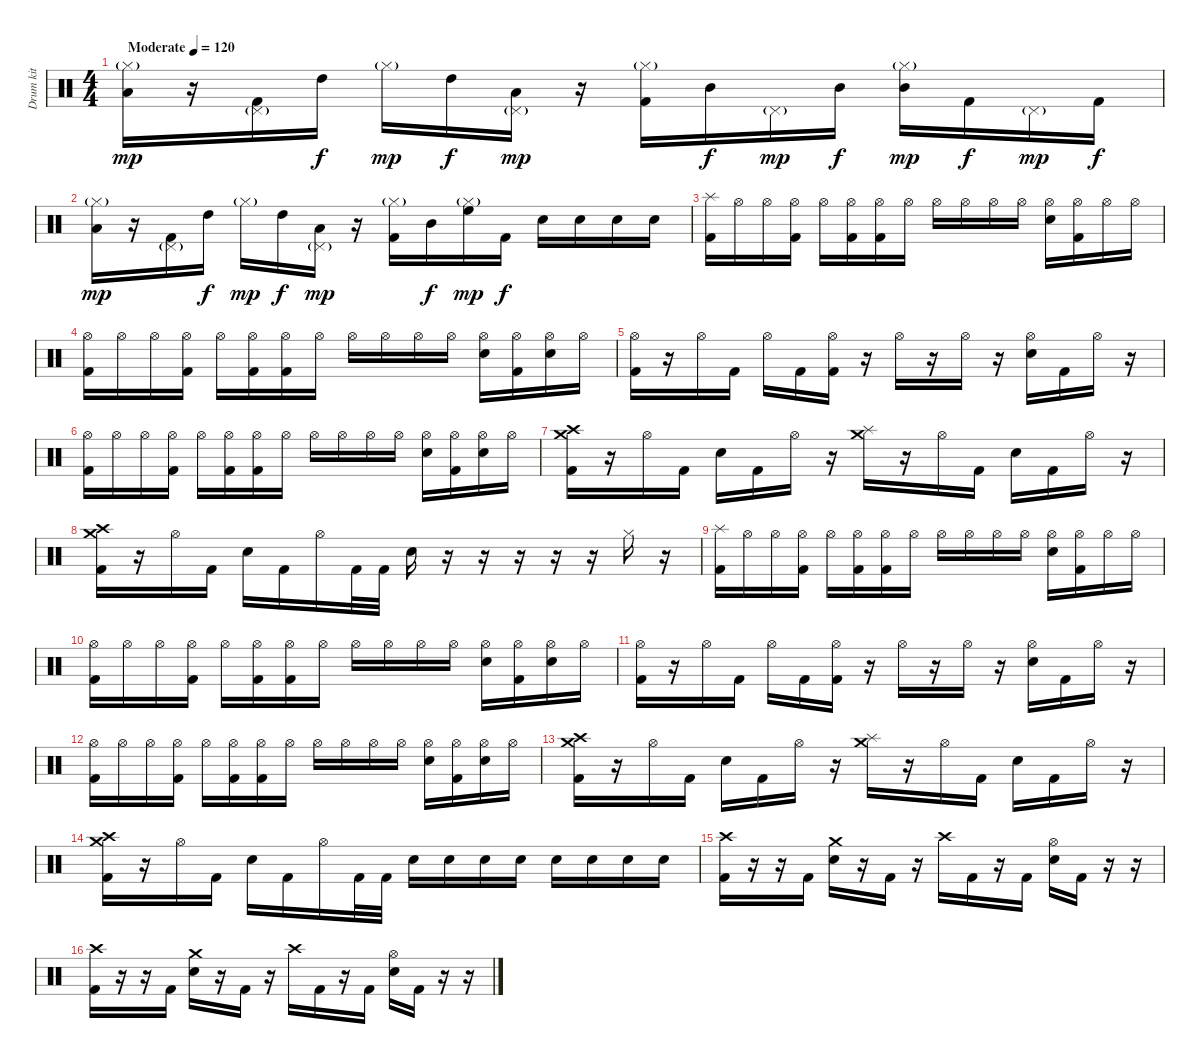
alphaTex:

\track ("Drum kit" "Drum kit") {instrument percussion}
\staff {score}
\articulation defaults
\ts (4 4)
\tempo (120 "Moderate")
\clef neutral
\ks c
("Hi-Hat (closed)"{g} "Low Tom (hit)").16{dy mp} r.16 ("Pedal Hi-Hat (hit)"{g} "Kick (hit) 2").16 "High Tom (hit)".16{dy f} "Hi-Hat (closed)"{g}.16{dy mp} "High Tom (hit)".16{dy f} ("Pedal Hi-Hat (hit)"{g} "Low Tom (hit)").16{dy mp} r.16 ("Hi-Hat (closed)"{g} "Kick (hit) 2").16 "Mid Tom (hit)".16{dy f} "Pedal Hi-Hat (hit)"{g}.16{dy mp} "Mid Tom (hit)".16{dy f} ("Hi-Hat (closed)"{g} "Mid Tom (hit)").16{dy mp} "Kick (hit) 2".16{dy f} "Pedal Hi-Hat (hit)"{g}.16{dy mp} "Kick (hit) 2".16{dy f} |
("Hi-Hat (closed)"{g} "Low Tom (hit)").16{dy mp} r.16 ("Pedal Hi-Hat (hit)"{g} "Kick (hit) 2").16 "High Tom (hit)".16{dy f} "Hi-Hat (closed)"{g}.16{dy mp} "High Tom (hit)".16{dy f} ("Pedal Hi-Hat (hit)"{g} "Low Tom (hit)").16{dy mp} r.16 ("Hi-Hat (closed)"{g} "Kick (hit) 2").16 "Mid Tom (hit)".16{dy f} ("Hi-Hat (closed)"{g} "High Floor Tom (hit)").16{dy mp} "Kick (hit) 2".16{dy f} "Snare (hit) 2".16 "Snare (hit) 2".16 "Snare (hit) 2".16 "Snare (hit) 2".16 |
("Splash (hit)" "Kick (hit) 2").16 "Hi-Hat (open)".16 "Hi-Hat (open)".16 ("Hi-Hat (open)" "Kick (hit) 2").16 "Hi-Hat (open)".16 ("Hi-Hat (open)" "Kick (hit) 2").16 ("Hi-Hat (open)" "Kick (hit) 2").16 "Hi-Hat (open)".16 "Hi-Hat (open)".16 "Hi-Hat (open)".16 "Hi-Hat (open)".16 "Hi-Hat (open)".16 ("Hi-Hat (open)" "Snare (hit) 2").16 ("Hi-Hat (open)" "Kick (hit) 2").16 "Hi-Hat (open)".16 "Hi-Hat (open)".16 |
("Hi-Hat (open)" "Kick (hit) 2").16 "Hi-Hat (open)".16 "Hi-Hat (open)".16 ("Hi-Hat (open)" "Kick (hit) 2").16 "Hi-Hat (open)".16 ("Hi-Hat (open)" "Kick (hit) 2").16 ("Hi-Hat (open)" "Kick (hit) 2").16 "Hi-Hat (open)".16 "Hi-Hat (open)".16 "Hi-Hat (open)".16 "Hi-Hat (open)".16 "Hi-Hat (open)".16 ("Hi-Hat (open)" "Snare (hit) 2").16 ("Hi-Hat (open)" "Kick (hit) 2").16 ("Hi-Hat (open)" "Snare (hit) 2").16 "Hi-Hat (open)".16 |
("Hi-Hat (open)" "Kick (hit) 2").16 r.16 "Hi-Hat (open)".16 "Kick (hit) 2".16 "Hi-Hat (open)".16 "Kick (hit) 2".16 ("Hi-Hat (open)" "Kick (hit) 2").16 r.16 "Hi-Hat (open)".16 r.16 "Hi-Hat (open)".16 r.16 ("Hi-Hat (open)" "Snare (hit) 2").16 "Kick (hit) 2".16 "Hi-Hat (open)".16 r.16 |
("Hi-Hat (open)" "Kick (hit) 2").16 "Hi-Hat (open)".16 "Hi-Hat (open)".16 ("Hi-Hat (open)" "Kick (hit) 2").16 "Hi-Hat (open)".16 ("Hi-Hat (open)" "Kick (hit) 2").16 ("Hi-Hat (open)" "Kick (hit) 2").16 "Hi-Hat (open)".16 "Hi-Hat (open)".16 "Hi-Hat (open)".16 "Hi-Hat (open)".16 "Hi-Hat (open)".16 ("Hi-Hat (open)" "Snare (hit) 2").16 ("Hi-Hat (open)" "Kick (hit) 2").16 ("Hi-Hat (open)" "Snare (hit) 2").16 "Hi-Hat (open)".16 |
("Crash high (hit)" "Crash medium (hit)" "Kick (hit) 2").16 r.16 "Hi-Hat (open)".16 "Kick (hit) 2".16 "Snare (hit) 2".16 "Kick (hit) 2".16 "Hi-Hat (open)".16 r.16 ("Splash (hit)" "Crash medium (hit)").16 r.16 "Hi-Hat (open)".16 "Kick (hit) 2".16 "Snare (hit) 2".16 "Kick (hit) 2".16 "Hi-Hat (open)".16 r.16 |
("Crash high (hit)" "Crash medium (hit)" "Kick (hit) 2").16 r.16 "Hi-Hat (open)".16 "Kick (hit) 2".16 "Snare (hit) 2".16 "Kick (hit) 2".16 "Hi-Hat (open)".16 "Kick (hit) 2".32 "Kick (hit) 2".32 "Snare (hit) 2".16 r.16 r.16 r.16 r.16 r.16 "Hi-Hat (closed)".16 r.16 |
("Splash (hit)" "Kick (hit) 2").16 "Hi-Hat (open)".16 "Hi-Hat (open)".16 ("Hi-Hat (open)" "Kick (hit) 2").16 "Hi-Hat (open)".16 ("Hi-Hat (open)" "Kick (hit) 2").16 ("Hi-Hat (open)" "Kick (hit) 2").16 "Hi-Hat (open)".16 "Hi-Hat (open)".16 "Hi-Hat (open)".16 "Hi-Hat (open)".16 "Hi-Hat (open)".16 ("Hi-Hat (open)" "Snare (hit) 2").16 ("Hi-Hat (open)" "Kick (hit) 2").16 "Hi-Hat (open)".16 "Hi-Hat (open)".16 |
("Hi-Hat (open)" "Kick (hit) 2").16 "Hi-Hat (open)".16 "Hi-Hat (open)".16 ("Hi-Hat (open)" "Kick (hit) 2").16 "Hi-Hat (open)".16 ("Hi-Hat (open)" "Kick (hit) 2").16 ("Hi-Hat (open)" "Kick (hit) 2").16 "Hi-Hat (open)".16 "Hi-Hat (open)".16 "Hi-Hat (open)".16 "Hi-Hat (open)".16 "Hi-Hat (open)".16 ("Hi-Hat (open)" "Snare (hit) 2").16 ("Hi-Hat (open)" "Kick (hit) 2").16 ("Hi-Hat (open)" "Snare (hit) 2").16 "Hi-Hat (open)".16 |
("Hi-Hat (open)" "Kick (hit) 2").16 r.16 "Hi-Hat (open)".16 "Kick (hit) 2".16 "Hi-Hat (open)".16 "Kick (hit) 2".16 ("Hi-Hat (open)" "Kick (hit) 2").16 r.16 "Hi-Hat (open)".16 r.16 "Hi-Hat (open)".16 r.16 ("Hi-Hat (open)" "Snare (hit) 2").16 "Kick (hit) 2".16 "Hi-Hat (open)".16 r.16 |
("Hi-Hat (open)" "Kick (hit) 2").16 "Hi-Hat (open)".16 "Hi-Hat (open)".16 ("Hi-Hat (open)" "Kick (hit) 2").16 "Hi-Hat (open)".16 ("Hi-Hat (open)" "Kick (hit) 2").16 ("Hi-Hat (open)" "Kick (hit) 2").16 "Hi-Hat (open)".16 "Hi-Hat (open)".16 "Hi-Hat (open)".16 "Hi-Hat (open)".16 "Hi-Hat (open)".16 ("Hi-Hat (open)" "Snare (hit) 2").16 ("Hi-Hat (open)" "Kick (hit) 2").16 ("Hi-Hat (open)" "Snare (hit) 2").16 "Hi-Hat (open)".16 |
("Crash high (hit)" "Crash medium (hit)" "Kick (hit) 2").16 r.16 "Hi-Hat (open)".16 "Kick (hit) 2".16 "Snare (hit) 2".16 "Kick (hit) 2".16 "Hi-Hat (open)".16 r.16 ("Splash (hit)" "Crash medium (hit)").16 r.16 "Hi-Hat (open)".16 "Kick (hit) 2".16 "Snare (hit) 2".16 "Kick (hit) 2".16 "Hi-Hat (open)".16 r.16 |
("Crash high (hit)" "Crash medium (hit)" "Kick (hit) 2").16 r.16 "Hi-Hat (open)".16 "Kick (hit) 2".16 "Snare (hit) 2".16 "Kick (hit) 2".16 "Hi-Hat (open)".16 "Kick (hit) 2".32 "Kick (hit) 2".32 "Snare (hit) 2".16 "Snare (hit) 2".16 "Snare (hit) 2".16 "Snare (hit) 2".16 "Snare (hit) 2".16 "Snare (hit) 2".16 "Snare (hit) 2".16 "Snare (hit) 2".16 |
("Kick (hit) 2" "Crash high (hit)").16 r.16 r.16 "Kick (hit) 2".16 ("Snare (hit) 2" "Crash medium (hit)").16 r.16 "Kick (hit) 2".16 r.16 "Crash high (hit)".16 "Kick (hit) 2".16 r.16 "Kick (hit) 2".16 ("Snare (hit) 2" "Hi-Hat (open)").16 "Kick (hit) 2".16 r.16 r.16 |
("Kick (hit) 2" "Crash high (hit)").16 r.16 r.16 "Kick (hit) 2".16 ("Snare (hit) 2" "Crash medium (hit)").16 r.16 "Kick (hit) 2".16 r.16 "Crash high (hit)".16 "Kick (hit) 2".16 r.16 "Kick (hit) 2".16 ("Snare (hit) 2" "Hi-Hat (open)").16 "Kick (hit) 2".16 r.16 r.16
